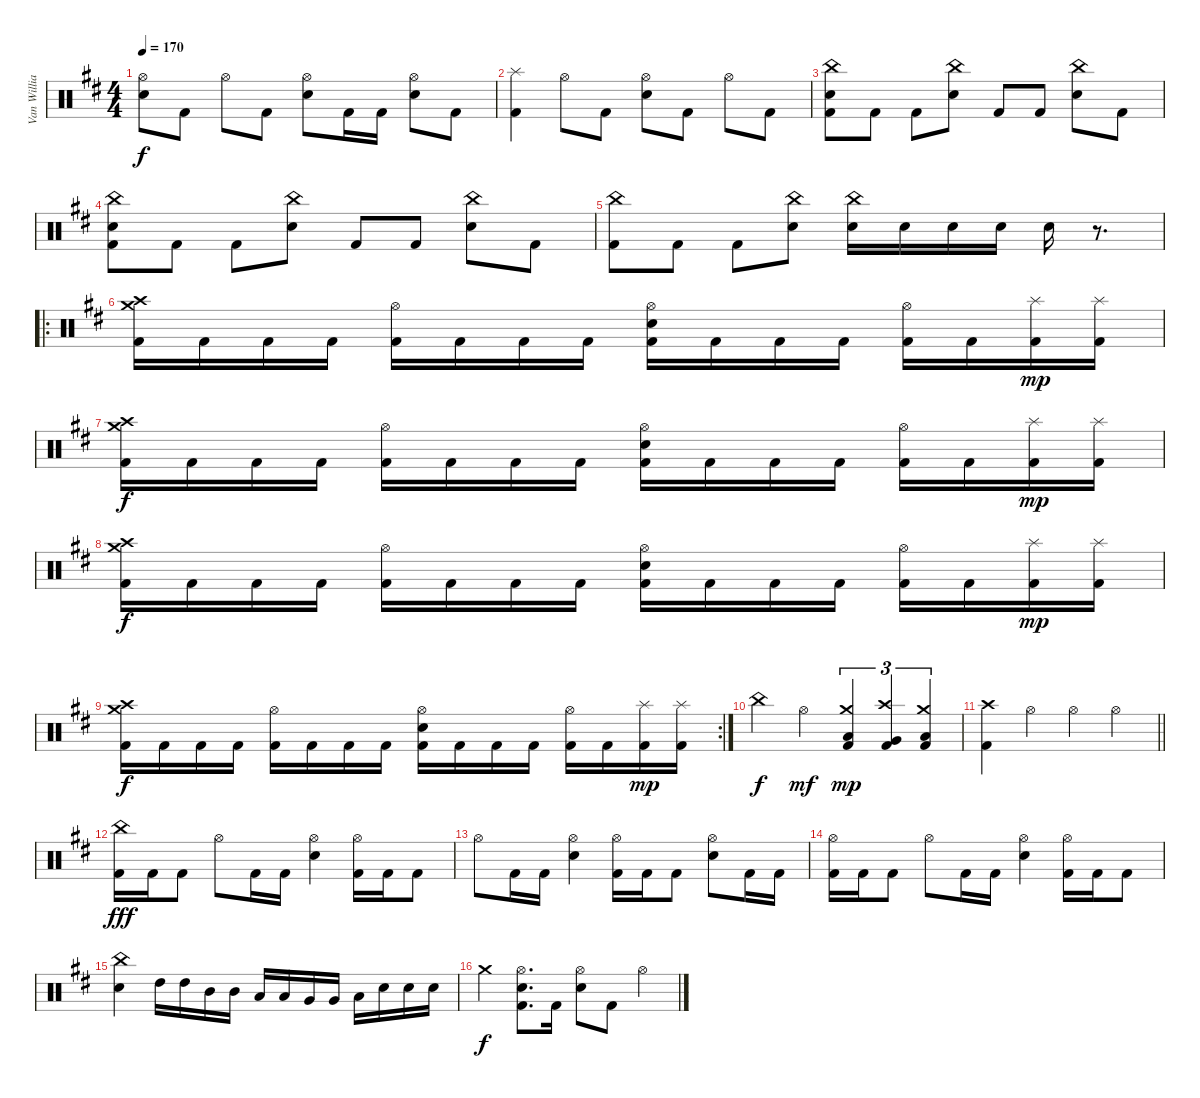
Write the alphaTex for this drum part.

\track ("Van Williams" "Van Willia") {instrument percussion}
\staff {score}
\articulation defaults
\ts (4 4)
\tempo 170
\clef neutral
\ks d
("Hi-Hat (open)" "Electric Snare (hit)").8{dy f} "Kick (hit) 2".8 "Hi-Hat (open)".8 "Kick (hit) 2".8 ("Hi-Hat (open)" "Electric Snare (hit)").8 "Kick (hit) 2".16 "Kick (hit) 2".16 ("Hi-Hat (open)" "Electric Snare (hit)").8 "Kick (hit) 2".8 |
("Splash (hit)" "Kick (hit) 2").4 "Hi-Hat (open)".8 "Kick (hit) 2".8 ("Hi-Hat (open)" "Electric Snare (hit)").8 "Kick (hit) 2".8 "Hi-Hat (open)".8 "Kick (hit) 2".8 |
("China (hit)" "Electric Snare (hit)" "Kick (hit) 2").8 "Kick (hit) 2".8 "Kick (hit) 2".8 ("China (hit)" "Electric Snare (hit)").8 "Kick (hit) 2".8 "Kick (hit) 2".8 ("China (hit)" "Electric Snare (hit)").8 "Kick (hit) 2".8 |
("China (hit)" "Electric Snare (hit)" "Kick (hit) 2").8 "Kick (hit) 2".8 "Kick (hit) 2".8 ("China (hit)" "Electric Snare (hit)").8 "Kick (hit) 2".8 "Kick (hit) 2".8 ("China (hit)" "Electric Snare (hit)").8 "Kick (hit) 2".8 |
("China (hit)" "Kick (hit) 2").8 "Kick (hit) 2".8 "Kick (hit) 2".8 ("China (hit)" "Electric Snare (hit)").8 ("China (hit)" "Electric Snare (hit)").16 "Electric Snare (hit)".16 "Electric Snare (hit)".16 "Electric Snare (hit)".16 "Electric Snare (hit)".16 r.8{d} |
\ro
("Crash medium (hit)" "Crash high (hit)" "Kick (hit) 2").16 "Kick (hit) 2".16 "Kick (hit) 2".16 "Kick (hit) 2".16 ("Hi-Hat (open)" "Kick (hit) 2").16 "Kick (hit) 2".16 "Kick (hit) 2".16 "Kick (hit) 2".16 ("Hi-Hat (open)" "Electric Snare (hit)" "Kick (hit) 2").16 "Kick (hit) 2".16 "Kick (hit) 2".16 "Kick (hit) 2".16 ("Hi-Hat (open)" "Kick (hit) 2").16 "Kick (hit) 2".16 ("Splash (hit)" "Kick (hit) 2").16{dy mp} ("Splash (hit)" "Kick (hit) 2").16 |
("Crash medium (hit)" "Crash high (hit)" "Kick (hit) 2").16{dy f} "Kick (hit) 2".16 "Kick (hit) 2".16 "Kick (hit) 2".16 ("Hi-Hat (open)" "Kick (hit) 2").16 "Kick (hit) 2".16 "Kick (hit) 2".16 "Kick (hit) 2".16 ("Hi-Hat (open)" "Electric Snare (hit)" "Kick (hit) 2").16 "Kick (hit) 2".16 "Kick (hit) 2".16 "Kick (hit) 2".16 ("Hi-Hat (open)" "Kick (hit) 2").16 "Kick (hit) 2".16 ("Splash (hit)" "Kick (hit) 2").16{dy mp} ("Splash (hit)" "Kick (hit) 2").16 |
("Crash medium (hit)" "Crash high (hit)" "Kick (hit) 2").16{dy f} "Kick (hit) 2".16 "Kick (hit) 2".16 "Kick (hit) 2".16 ("Hi-Hat (open)" "Kick (hit) 2").16 "Kick (hit) 2".16 "Kick (hit) 2".16 "Kick (hit) 2".16 ("Hi-Hat (open)" "Electric Snare (hit)" "Kick (hit) 2").16 "Kick (hit) 2".16 "Kick (hit) 2".16 "Kick (hit) 2".16 ("Hi-Hat (open)" "Kick (hit) 2").16 "Kick (hit) 2".16 ("Splash (hit)" "Kick (hit) 2").16{dy mp} ("Splash (hit)" "Kick (hit) 2").16 |
\rc 2
("Crash medium (hit)" "Crash high (hit)" "Kick (hit) 2").16{dy f} "Kick (hit) 2".16 "Kick (hit) 2".16 "Kick (hit) 2".16 ("Hi-Hat (open)" "Kick (hit) 2").16 "Kick (hit) 2".16 "Kick (hit) 2".16 "Kick (hit) 2".16 ("Hi-Hat (open)" "Electric Snare (hit)" "Kick (hit) 2").16 "Kick (hit) 2".16 "Kick (hit) 2".16 "Kick (hit) 2".16 ("Hi-Hat (open)" "Kick (hit) 2").16 "Kick (hit) 2".16 ("Splash (hit)" "Kick (hit) 2").16{dy mp} ("Splash (hit)" "Kick (hit) 2").16 |
"China (hit)".4{dy f} "Hi-Hat (open)".4{dy mf} ("Crash medium (hit)" "Low Tom (hit)" "Kick (hit) 2").4{tu (3 2) dy mp} ("Crash high (hit)" "Very Low Tom (hit)" "Kick (hit) 2").4{tu (3 2)} ("Crash medium (hit)" "Low Floor Tom (hit)" "Kick (hit) 2").4{tu (3 2)} |
\barLineRight lightlight
("Crash high (hit)" "Kick (hit) 2").4 "Hi-Hat (open)".4 "Hi-Hat (open)".4 "Hi-Hat (open)".4 |
("China (hit)" "Kick (hit) 2").16{dy fff} "Kick (hit) 2".16 "Kick (hit) 2".8 "Hi-Hat (open)".8 "Kick (hit) 2".16 "Kick (hit) 2".16 ("Hi-Hat (open)" "Electric Snare (hit)").4 ("Hi-Hat (open)" "Kick (hit) 2").16 "Kick (hit) 2".16 "Kick (hit) 2".8 |
"Hi-Hat (open)".8 "Kick (hit) 2".16 "Kick (hit) 2".16 ("Hi-Hat (open)" "Electric Snare (hit)").4 ("Hi-Hat (open)" "Kick (hit) 2").16 "Kick (hit) 2".16 "Kick (hit) 2".8 ("Hi-Hat (open)" "Electric Snare (hit)").8 "Kick (hit) 2".16 "Kick (hit) 2".16 |
("Hi-Hat (open)" "Kick (hit) 2").16 "Kick (hit) 2".16 "Kick (hit) 2".8 "Hi-Hat (open)".8 "Kick (hit) 2".16 "Kick (hit) 2".16 ("Hi-Hat (open)" "Electric Snare (hit)").4 ("Hi-Hat (open)" "Kick (hit) 2").16 "Kick (hit) 2".16 "Kick (hit) 2".8 |
("China (hit)" "Electric Snare (hit)").4 "High Tom (hit)".16 "High Tom (hit)".16 "Mid Tom (hit)".16 "Mid Tom (hit)".16 "Low Tom (hit)".16 "Low Tom (hit)".16 "Very Low Tom (hit)".16 "Very Low Tom (hit)".16 "Low Floor Tom (hit)".16 "Electric Snare (hit)".16 "Electric Snare (hit)".16 "Electric Snare (hit)".16 |
"Crash medium (hit)".4{dy f} ("Hi-Hat (open)" "Electric Snare (hit)" "Kick (hit) 2").8{d} "Kick (hit) 2".16 ("Hi-Hat (open)" "Electric Snare (hit)").8 "Kick (hit) 2".8 "Hi-Hat (open)".4
